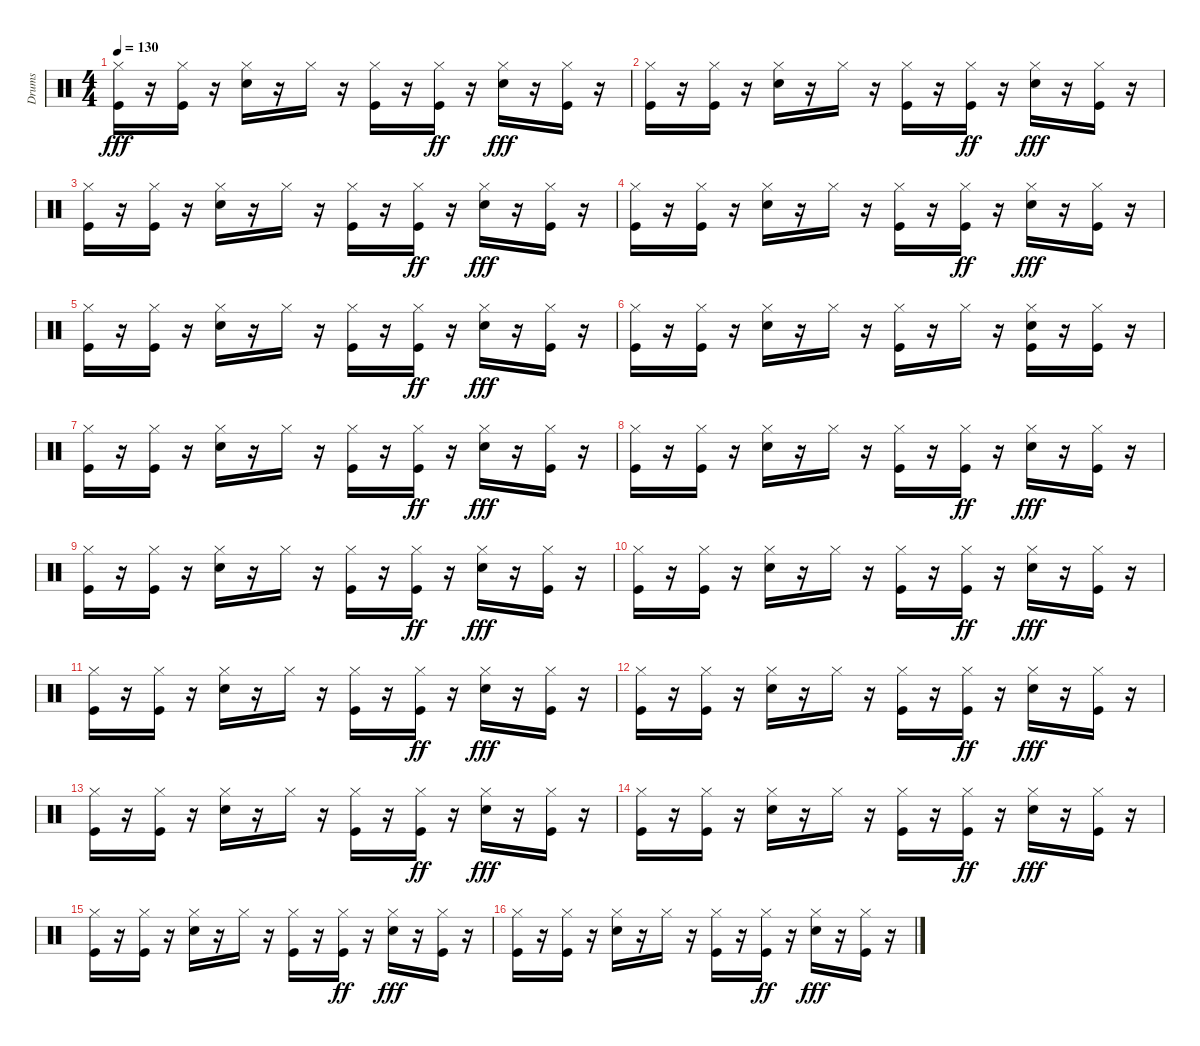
\track ("Drums" "Drums") {instrument percussion}
\staff {score}
\articulation defaults
\ts (4 4)
\tempo 130
\clef neutral
\ks c
("Hi-Hat (closed)" "Kick (hit)").16{dy fff} r.16 ("Hi-Hat (closed)" "Kick (hit)").16 r.16 ("Hi-Hat (closed)" "Electric Snare (hit)").16 r.16 "Hi-Hat (closed)".16 r.16 ("Hi-Hat (closed)" "Kick (hit)").16 r.16 ("Hi-Hat (closed)" "Kick (hit)").16{dy ff} r.16 ("Hi-Hat (closed)" "Electric Snare (hit)").16{dy fff} r.16 ("Hi-Hat (closed)" "Kick (hit)").16 r.16 |
("Hi-Hat (closed)" "Kick (hit)").16 r.16 ("Hi-Hat (closed)" "Kick (hit)").16 r.16 ("Hi-Hat (closed)" "Electric Snare (hit)").16 r.16 "Hi-Hat (closed)".16 r.16 ("Hi-Hat (closed)" "Kick (hit)").16 r.16 ("Hi-Hat (closed)" "Kick (hit)").16{dy ff} r.16 ("Hi-Hat (closed)" "Electric Snare (hit)").16{dy fff} r.16 ("Hi-Hat (closed)" "Kick (hit)").16 r.16 |
("Hi-Hat (closed)" "Kick (hit)").16 r.16 ("Hi-Hat (closed)" "Kick (hit)").16 r.16 ("Hi-Hat (closed)" "Electric Snare (hit)").16 r.16 "Hi-Hat (closed)".16 r.16 ("Hi-Hat (closed)" "Kick (hit)").16 r.16 ("Hi-Hat (closed)" "Kick (hit)").16{dy ff} r.16 ("Hi-Hat (closed)" "Electric Snare (hit)").16{dy fff} r.16 ("Hi-Hat (closed)" "Kick (hit)").16 r.16 |
("Hi-Hat (closed)" "Kick (hit)").16 r.16 ("Hi-Hat (closed)" "Kick (hit)").16 r.16 ("Hi-Hat (closed)" "Electric Snare (hit)").16 r.16 "Hi-Hat (closed)".16 r.16 ("Hi-Hat (closed)" "Kick (hit)").16 r.16 ("Hi-Hat (closed)" "Kick (hit)").16{dy ff} r.16 ("Hi-Hat (closed)" "Electric Snare (hit)").16{dy fff} r.16 ("Hi-Hat (closed)" "Kick (hit)").16 r.16 |
("Hi-Hat (closed)" "Kick (hit)").16 r.16 ("Hi-Hat (closed)" "Kick (hit)").16 r.16 ("Hi-Hat (closed)" "Electric Snare (hit)").16 r.16 "Hi-Hat (closed)".16 r.16 ("Hi-Hat (closed)" "Kick (hit)").16 r.16 ("Hi-Hat (closed)" "Kick (hit)").16{dy ff} r.16 ("Hi-Hat (closed)" "Electric Snare (hit)").16{dy fff} r.16 ("Hi-Hat (closed)" "Kick (hit)").16 r.16 |
("Hi-Hat (closed)" "Kick (hit)").16 r.16 ("Hi-Hat (closed)" "Kick (hit)").16 r.16 ("Hi-Hat (closed)" "Electric Snare (hit)").16 r.16 "Hi-Hat (closed)".16 r.16 ("Hi-Hat (closed)" "Kick (hit)").16 r.16 "Hi-Hat (closed)".16 r.16 ("Kick (hit)" "Electric Snare (hit)" "Hi-Hat (closed)").16 r.16 ("Hi-Hat (closed)" "Kick (hit)").16 r.16 |
("Hi-Hat (closed)" "Kick (hit)").16 r.16 ("Hi-Hat (closed)" "Kick (hit)").16 r.16 ("Hi-Hat (closed)" "Electric Snare (hit)").16 r.16 "Hi-Hat (closed)".16 r.16 ("Hi-Hat (closed)" "Kick (hit)").16 r.16 ("Hi-Hat (closed)" "Kick (hit)").16{dy ff} r.16 ("Hi-Hat (closed)" "Electric Snare (hit)").16{dy fff} r.16 ("Hi-Hat (closed)" "Kick (hit)").16 r.16 |
("Hi-Hat (closed)" "Kick (hit)").16 r.16 ("Hi-Hat (closed)" "Kick (hit)").16 r.16 ("Hi-Hat (closed)" "Electric Snare (hit)").16 r.16 "Hi-Hat (closed)".16 r.16 ("Hi-Hat (closed)" "Kick (hit)").16 r.16 ("Hi-Hat (closed)" "Kick (hit)").16{dy ff} r.16 ("Hi-Hat (closed)" "Electric Snare (hit)").16{dy fff} r.16 ("Hi-Hat (closed)" "Kick (hit)").16 r.16 |
("Hi-Hat (closed)" "Kick (hit)").16 r.16 ("Hi-Hat (closed)" "Kick (hit)").16 r.16 ("Hi-Hat (closed)" "Electric Snare (hit)").16 r.16 "Hi-Hat (closed)".16 r.16 ("Hi-Hat (closed)" "Kick (hit)").16 r.16 ("Hi-Hat (closed)" "Kick (hit)").16{dy ff} r.16 ("Hi-Hat (closed)" "Electric Snare (hit)").16{dy fff} r.16 ("Hi-Hat (closed)" "Kick (hit)").16 r.16 |
("Hi-Hat (closed)" "Kick (hit)").16 r.16 ("Hi-Hat (closed)" "Kick (hit)").16 r.16 ("Hi-Hat (closed)" "Electric Snare (hit)").16 r.16 "Hi-Hat (closed)".16 r.16 ("Hi-Hat (closed)" "Kick (hit)").16 r.16 ("Hi-Hat (closed)" "Kick (hit)").16{dy ff} r.16 ("Hi-Hat (closed)" "Electric Snare (hit)").16{dy fff} r.16 ("Hi-Hat (closed)" "Kick (hit)").16 r.16 |
("Hi-Hat (closed)" "Kick (hit)").16 r.16 ("Hi-Hat (closed)" "Kick (hit)").16 r.16 ("Hi-Hat (closed)" "Electric Snare (hit)").16 r.16 "Hi-Hat (closed)".16 r.16 ("Hi-Hat (closed)" "Kick (hit)").16 r.16 ("Hi-Hat (closed)" "Kick (hit)").16{dy ff} r.16 ("Hi-Hat (closed)" "Electric Snare (hit)").16{dy fff} r.16 ("Hi-Hat (closed)" "Kick (hit)").16 r.16 |
("Hi-Hat (closed)" "Kick (hit)").16 r.16 ("Hi-Hat (closed)" "Kick (hit)").16 r.16 ("Hi-Hat (closed)" "Electric Snare (hit)").16 r.16 "Hi-Hat (closed)".16 r.16 ("Hi-Hat (closed)" "Kick (hit)").16 r.16 ("Hi-Hat (closed)" "Kick (hit)").16{dy ff} r.16 ("Hi-Hat (closed)" "Electric Snare (hit)").16{dy fff} r.16 ("Hi-Hat (closed)" "Kick (hit)").16 r.16 |
("Hi-Hat (closed)" "Kick (hit)").16 r.16 ("Hi-Hat (closed)" "Kick (hit)").16 r.16 ("Hi-Hat (closed)" "Electric Snare (hit)").16 r.16 "Hi-Hat (closed)".16 r.16 ("Hi-Hat (closed)" "Kick (hit)").16 r.16 ("Hi-Hat (closed)" "Kick (hit)").16{dy ff} r.16 ("Hi-Hat (closed)" "Electric Snare (hit)").16{dy fff} r.16 ("Hi-Hat (closed)" "Kick (hit)").16 r.16 |
("Hi-Hat (closed)" "Kick (hit)").16 r.16 ("Hi-Hat (closed)" "Kick (hit)").16 r.16 ("Hi-Hat (closed)" "Electric Snare (hit)").16 r.16 "Hi-Hat (closed)".16 r.16 ("Hi-Hat (closed)" "Kick (hit)").16 r.16 ("Hi-Hat (closed)" "Kick (hit)").16{dy ff} r.16 ("Hi-Hat (closed)" "Electric Snare (hit)").16{dy fff} r.16 ("Hi-Hat (closed)" "Kick (hit)").16 r.16 |
("Hi-Hat (closed)" "Kick (hit)").16 r.16 ("Hi-Hat (closed)" "Kick (hit)").16 r.16 ("Hi-Hat (closed)" "Electric Snare (hit)").16 r.16 "Hi-Hat (closed)".16 r.16 ("Hi-Hat (closed)" "Kick (hit)").16 r.16 ("Hi-Hat (closed)" "Kick (hit)").16{dy ff} r.16 ("Hi-Hat (closed)" "Electric Snare (hit)").16{dy fff} r.16 ("Hi-Hat (closed)" "Kick (hit)").16 r.16 |
("Hi-Hat (closed)" "Kick (hit)").16 r.16 ("Hi-Hat (closed)" "Kick (hit)").16 r.16 ("Hi-Hat (closed)" "Electric Snare (hit)").16 r.16 "Hi-Hat (closed)".16 r.16 ("Hi-Hat (closed)" "Kick (hit)").16 r.16 ("Hi-Hat (closed)" "Kick (hit)").16{dy ff} r.16 ("Hi-Hat (closed)" "Electric Snare (hit)").16{dy fff} r.16 ("Hi-Hat (closed)" "Kick (hit)").16 r.16
